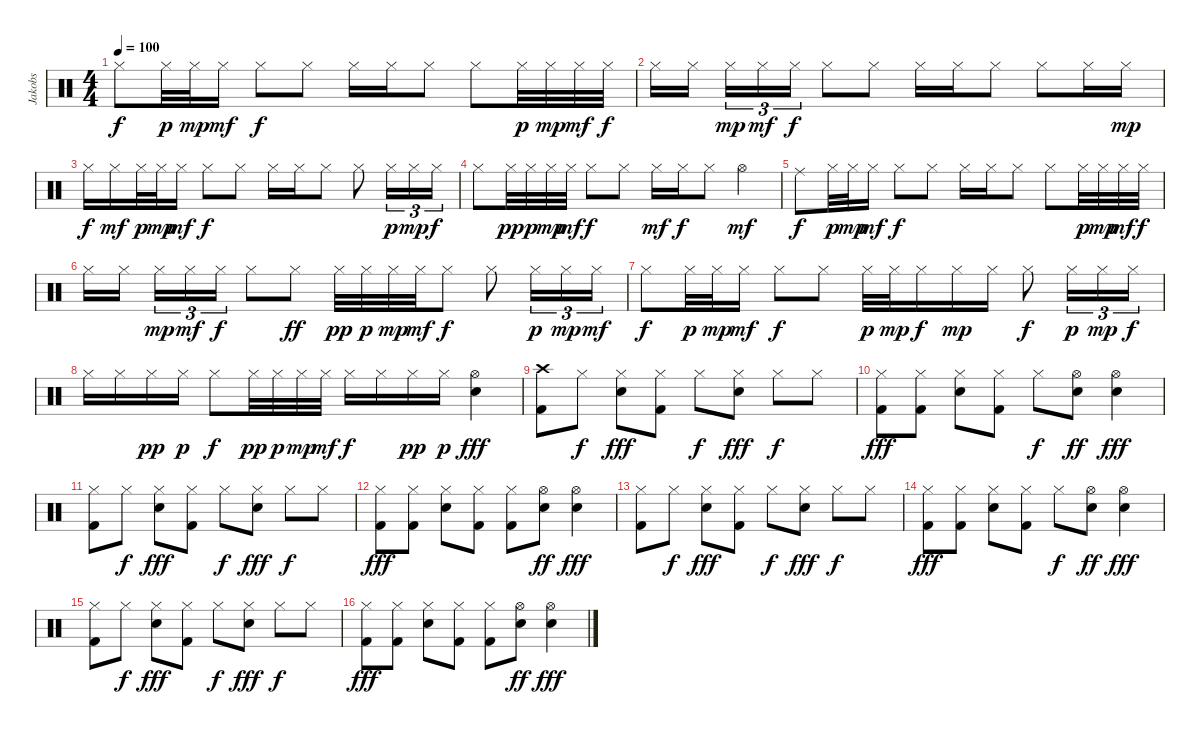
\track ("Jakobs" "Jakobs") {instrument percussion}
\staff {score}
\articulation defaults
\ts (4 4)
\tempo 100
\clef neutral
\ks c "Hi-Hat (closed)".8{dy f} "Hi-Hat (closed)".32{dy p} "Hi-Hat (closed)".32{dy mp} "Hi-Hat (closed)".16{dy mf} "Hi-Hat (closed)".8{dy f} "Hi-Hat (closed)".8 "Hi-Hat (closed)".16 "Hi-Hat (closed)".16 "Hi-Hat (closed)".8 "Hi-Hat (closed)".8 "Hi-Hat (closed)".32{dy p} "Hi-Hat (closed)".32{dy mp} "Hi-Hat (closed)".32{dy mf} "Hi-Hat (closed)".32{dy f}
|
"Hi-Hat (closed)".16 "Hi-Hat (closed)".16 "Hi-Hat (closed)".16{tu (3 2) dy mp} "Hi-Hat (closed)".16{tu (3 2) dy mf} "Hi-Hat (closed)".16{tu (3 2) dy f} "Hi-Hat (closed)".8 "Hi-Hat (closed)".8 "Hi-Hat (closed)".16 "Hi-Hat (closed)".16 "Hi-Hat (closed)".8 "Hi-Hat (closed)".8 "Hi-Hat (closed)".16 "Hi-Hat (closed)".16{dy mp} |
"Hi-Hat (closed)".16{dy f} "Hi-Hat (closed)".16{dy mf} "Hi-Hat (closed)".32{dy p} "Hi-Hat (closed)".32{dy mp} "Hi-Hat (closed)".16{dy mf} "Hi-Hat (closed)".8{dy f} "Hi-Hat (closed)".8 "Hi-Hat (closed)".16 "Hi-Hat (closed)".16 "Hi-Hat (closed)".8 "Hi-Hat (closed)".8 "Hi-Hat (closed)".16{tu (3 2) dy p} "Hi-Hat (closed)".16{tu (3 2) dy mp} "Hi-Hat (closed)".16{tu (3 2) dy f} |
"Hi-Hat (closed)".8 "Hi-Hat (closed)".32{dy pp} "Hi-Hat (closed)".32{dy p} "Hi-Hat (closed)".32{dy mp} "Hi-Hat (closed)".32{dy mf} "Hi-Hat (closed)".8{dy f} "Hi-Hat (closed)".8 "Hi-Hat (closed)".16{dy mf} "Hi-Hat (closed)".16{dy f} "Hi-Hat (closed)".8 "Hi-Hat (open)".4{dy mf} |
"Ride (middle)".8{dy f} "Hi-Hat (closed)".32{dy p} "Hi-Hat (closed)".32{dy mp} "Hi-Hat (closed)".16{dy mf} "Hi-Hat (closed)".8{dy f} "Hi-Hat (closed)".8 "Hi-Hat (closed)".16 "Hi-Hat (closed)".16 "Hi-Hat (closed)".8 "Hi-Hat (closed)".8 "Hi-Hat (closed)".32{dy p} "Hi-Hat (closed)".32{dy mp} "Hi-Hat (closed)".32{dy mf} "Hi-Hat (closed)".32{dy f} |
"Hi-Hat (closed)".16 "Hi-Hat (closed)".16 "Hi-Hat (closed)".16{tu (3 2) dy mp} "Hi-Hat (closed)".16{tu (3 2) dy mf} "Hi-Hat (closed)".16{tu (3 2) dy f} "Hi-Hat (closed)".8 "Hi-Hat (closed)".8{dy ff} "Hi-Hat (closed)".32{dy pp} "Hi-Hat (closed)".32{dy p} "Hi-Hat (closed)".32{dy mp} "Hi-Hat (closed)".32{dy mf} "Hi-Hat (closed)".8{dy f} "Hi-Hat (closed)".8 "Hi-Hat (closed)".16{tu (3 2) dy p} "Hi-Hat (closed)".16{tu (3 2) dy mp} "Hi-Hat (closed)".16{tu (3 2) dy mf} |
"Hi-Hat (closed)".8{dy f} "Hi-Hat (closed)".32{dy p} "Hi-Hat (closed)".32{dy mp} "Hi-Hat (closed)".16{dy mf} "Hi-Hat (closed)".8{dy f} "Hi-Hat (closed)".8 "Hi-Hat (closed)".32{dy p} "Hi-Hat (closed)".32{dy mp} "Hi-Hat (closed)".16{dy f} "Hi-Hat (closed)".16{dy mp} "Hi-Hat (closed)".16 "Hi-Hat (closed)".8{dy f} "Hi-Hat (closed)".16{tu (3 2) dy p} "Hi-Hat (closed)".16{tu (3 2) dy mp} "Hi-Hat (closed)".16{tu (3 2) dy f} |
"Hi-Hat (closed)".16 "Hi-Hat (closed)".16 "Hi-Hat (closed)".16{dy pp} "Hi-Hat (closed)".16{dy p} "Hi-Hat (closed)".8{dy f} "Hi-Hat (closed)".32{dy pp} "Hi-Hat (closed)".32{dy p} "Hi-Hat (closed)".32{dy mp} "Hi-Hat (closed)".32{dy mf} "Hi-Hat (closed)".16{dy f} "Hi-Hat (closed)".16 "Hi-Hat (closed)".16{dy pp} "Hi-Hat (closed)".16{dy p} ("Hi-Hat (open)" "Snare (hit) 2").4{dy fff} |
("Crash high (hit)" "Kick (hit) 2").8 "Hi-Hat (closed)".8{dy f} ("Hi-Hat (closed)" "Snare (hit) 2").8{dy fff} ("Hi-Hat (closed)" "Kick (hit) 2").8 "Hi-Hat (closed)".8{dy f} ("Hi-Hat (closed)" "Snare (hit) 2").8{dy fff} "Hi-Hat (closed)".8{dy f} "Hi-Hat (closed)".8 |
("Hi-Hat (closed)" "Kick (hit) 2").8{dy fff} ("Hi-Hat (closed)" "Kick (hit) 2").8 ("Hi-Hat (closed)" "Snare (hit) 2").8 ("Hi-Hat (closed)" "Kick (hit) 2").8 "Hi-Hat (closed)".8{dy f} ("Hi-Hat (open)" "Snare (hit) 2").8{dy ff} ("Hi-Hat (open)" "Snare (hit) 2").4{dy fff} |
("Hi-Hat (closed)" "Kick (hit) 2").8 "Hi-Hat (closed)".8{dy f} ("Hi-Hat (closed)" "Snare (hit) 2").8{dy fff} ("Hi-Hat (closed)" "Kick (hit) 2").8 "Hi-Hat (closed)".8{dy f} ("Hi-Hat (closed)" "Snare (hit) 2").8{dy fff} "Hi-Hat (closed)".8{dy f} "Hi-Hat (closed)".8 |
("Hi-Hat (closed)" "Kick (hit) 2").8{dy fff} ("Hi-Hat (closed)" "Kick (hit) 2").8 ("Hi-Hat (closed)" "Snare (hit) 2").8 ("Hi-Hat (closed)" "Kick (hit) 2").8 ("Hi-Hat (closed)" "Kick (hit) 2").8 ("Hi-Hat (open)" "Snare (hit) 2").8{dy ff} ("Hi-Hat (open)" "Snare (hit) 2").4{dy fff} |
("Hi-Hat (closed)" "Kick (hit) 2").8 "Hi-Hat (closed)".8{dy f} ("Hi-Hat (closed)" "Snare (hit) 2").8{dy fff} ("Hi-Hat (closed)" "Kick (hit) 2").8 "Hi-Hat (closed)".8{dy f} ("Hi-Hat (closed)" "Snare (hit) 2").8{dy fff} "Hi-Hat (closed)".8{dy f} "Hi-Hat (closed)".8 |
("Hi-Hat (closed)" "Kick (hit) 2").8{dy fff} ("Hi-Hat (closed)" "Kick (hit) 2").8 ("Hi-Hat (closed)" "Snare (hit) 2").8 ("Hi-Hat (closed)" "Kick (hit) 2").8 "Hi-Hat (closed)".8{dy f} ("Hi-Hat (open)" "Snare (hit) 2").8{dy ff} ("Hi-Hat (open)" "Snare (hit) 2").4{dy fff} |
("Hi-Hat (closed)" "Kick (hit) 2").8 "Hi-Hat (closed)".8{dy f} ("Hi-Hat (closed)" "Snare (hit) 2").8{dy fff} ("Hi-Hat (closed)" "Kick (hit) 2").8 "Hi-Hat (closed)".8{dy f} ("Hi-Hat (closed)" "Snare (hit) 2").8{dy fff} "Hi-Hat (closed)".8{dy f} "Hi-Hat (closed)".8 |
("Hi-Hat (closed)" "Kick (hit) 2").8{dy fff} ("Hi-Hat (closed)" "Kick (hit) 2").8 ("Hi-Hat (closed)" "Snare (hit) 2").8 ("Hi-Hat (closed)" "Kick (hit) 2").8 ("Hi-Hat (closed)" "Kick (hit) 2").8 ("Hi-Hat (open)" "Snare (hit) 2").8{dy ff} ("Hi-Hat (open)" "Snare (hit) 2").4{dy fff}
